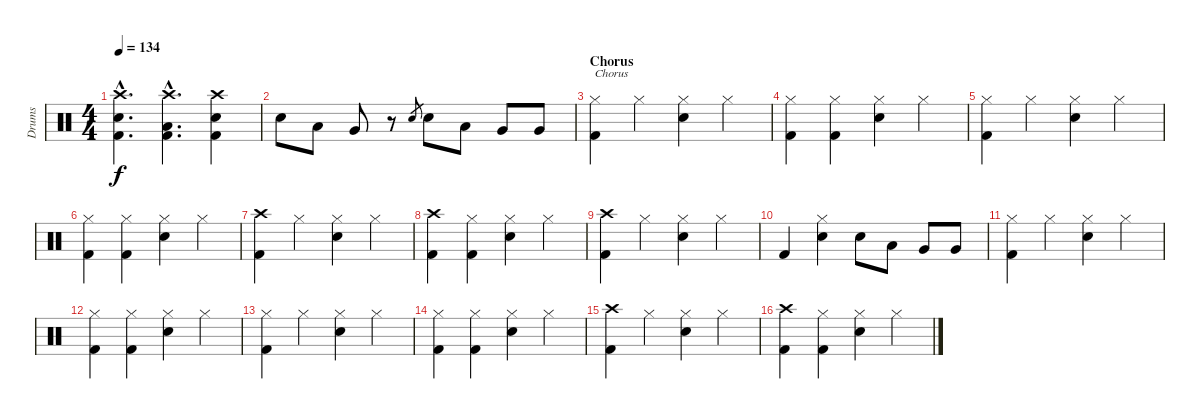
\track ("Drums" "Drums") {instrument percussion}
\staff {score}
\articulation defaults
\ts (4 4)
\tempo 134
\clef neutral
\ks c
("Crash high (hit)"{hac} "Electric Snare (hit)"{hac} "Kick (hit) 2"{hac}).4{d dy f} ("Crash high (hit)"{hac} "Low Tom (hit)"{hac} "Kick (hit) 2"{hac}).4{d} ("Crash high (hit)" "Electric Snare (hit)" "Kick (hit) 2").4 |
"Electric Snare (hit)".8 "Low Tom (hit)".8 "Very Low Tom (hit)".8 r.8 "Electric Snare (hit)".8{gr} "Electric Snare (hit)".8 "Low Tom (hit)".8 "Very Low Tom (hit)".8 "Very Low Tom (hit)".8 |
\section ("" "Chorus")
("Hi-Hat (closed)" "Kick (hit) 2").4{txt "Chorus"} "Hi-Hat (closed)".4 ("Hi-Hat (closed)" "Electric Snare (hit)").4 "Hi-Hat (closed)".4 |
("Hi-Hat (closed)" "Kick (hit) 2").4 ("Hi-Hat (closed)" "Kick (hit) 2").4 ("Hi-Hat (closed)" "Electric Snare (hit)").4 "Hi-Hat (closed)".4 |
("Hi-Hat (closed)" "Kick (hit) 2").4 "Hi-Hat (closed)".4 ("Hi-Hat (closed)" "Electric Snare (hit)").4 "Hi-Hat (closed)".4 |
("Hi-Hat (closed)" "Kick (hit) 2").4 ("Hi-Hat (closed)" "Kick (hit) 2").4 ("Hi-Hat (closed)" "Electric Snare (hit)").4 "Hi-Hat (closed)".4 |
("Crash high (hit)" "Kick (hit) 2").4 "Hi-Hat (closed)".4 ("Hi-Hat (closed)" "Electric Snare (hit)").4 "Hi-Hat (closed)".4 |
("Crash high (hit)" "Kick (hit) 2").4 ("Hi-Hat (closed)" "Kick (hit) 2").4 ("Hi-Hat (closed)" "Electric Snare (hit)").4 "Hi-Hat (closed)".4 |
("Crash high (hit)" "Kick (hit) 2").4 "Hi-Hat (closed)".4 ("Hi-Hat (closed)" "Electric Snare (hit)").4 "Hi-Hat (closed)".4 |
"Kick (hit) 2".4 ("Hi-Hat (closed)" "Electric Snare (hit)").4 "Electric Snare (hit)".8 "Low Tom (hit)".8 "Very Low Tom (hit)".8 "Very Low Tom (hit)".8 |
("Hi-Hat (closed)" "Kick (hit) 2").4 "Hi-Hat (closed)".4 ("Hi-Hat (closed)" "Electric Snare (hit)").4 "Hi-Hat (closed)".4 |
("Hi-Hat (closed)" "Kick (hit) 2").4 ("Hi-Hat (closed)" "Kick (hit) 2").4 ("Hi-Hat (closed)" "Electric Snare (hit)").4 "Hi-Hat (closed)".4 |
("Hi-Hat (closed)" "Kick (hit) 2").4 "Hi-Hat (closed)".4 ("Hi-Hat (closed)" "Electric Snare (hit)").4 "Hi-Hat (closed)".4 |
("Hi-Hat (closed)" "Kick (hit) 2").4 ("Hi-Hat (closed)" "Kick (hit) 2").4 ("Hi-Hat (closed)" "Electric Snare (hit)").4 "Hi-Hat (closed)".4 |
("Crash high (hit)" "Kick (hit) 2").4 "Hi-Hat (closed)".4 ("Hi-Hat (closed)" "Electric Snare (hit)").4 "Hi-Hat (closed)".4 |
("Crash high (hit)" "Kick (hit) 2").4 ("Hi-Hat (closed)" "Kick (hit) 2").4 ("Hi-Hat (closed)" "Electric Snare (hit)").4 "Hi-Hat (closed)".4
